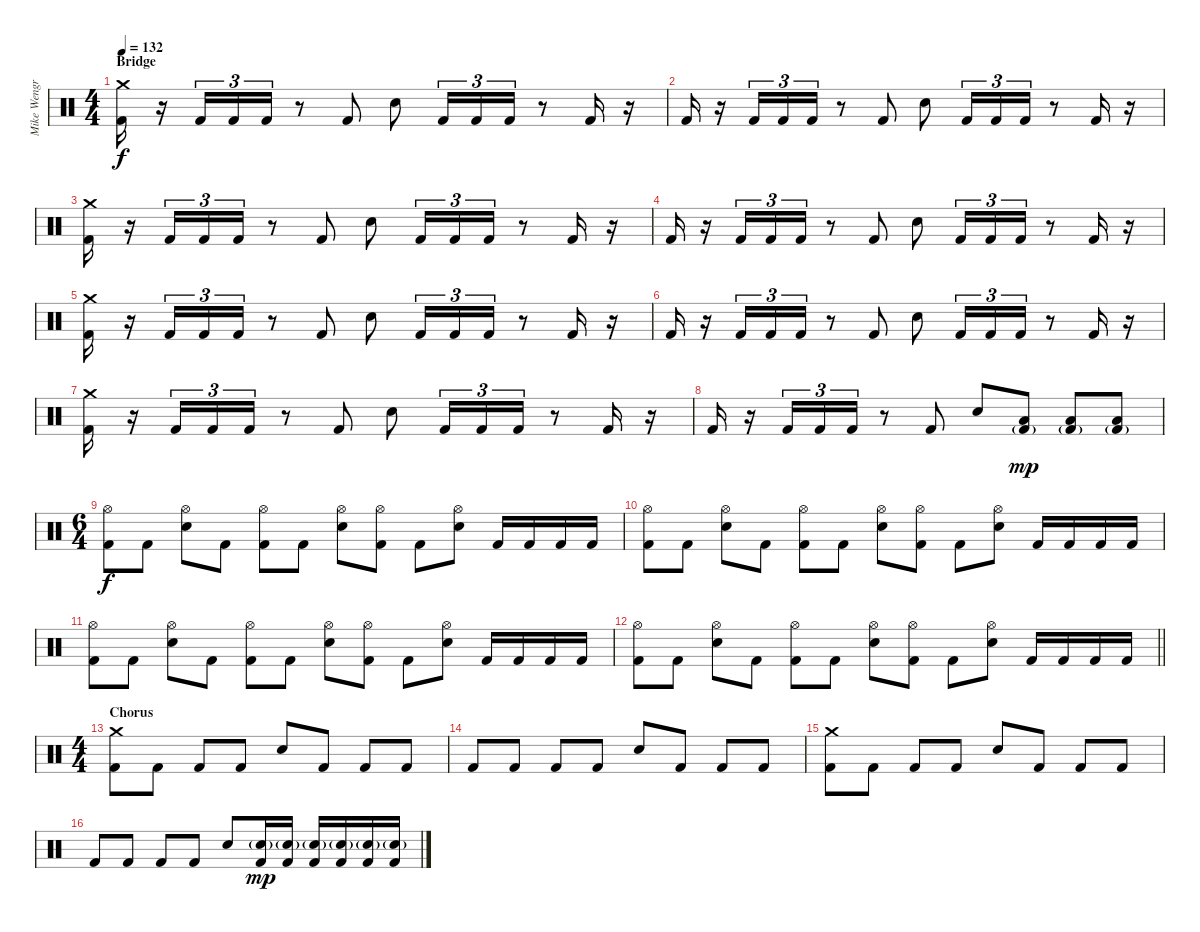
\track ("Mike Wengren" "Mike Wengr") {instrument percussion}
\staff {score}
\articulation defaults
\ts (4 4)
\section ("" "Bridge")
\tempo 132
\clef neutral
\ks c
("Crash medium (hit)" "Kick (hit) 2").16{dy f} r.16 "Kick (hit) 2".16{tu (3 2)} "Kick (hit) 2".16{tu (3 2)} "Kick (hit) 2".16{tu (3 2)} r.8 "Kick (hit) 2".8 "Electric Snare (hit)".8 "Kick (hit) 2".16{tu (3 2)} "Kick (hit) 2".16{tu (3 2)} "Kick (hit) 2".16{tu (3 2)} r.8 "Kick (hit) 2".16 r.16 |
"Kick (hit) 2".16 r.16 "Kick (hit) 2".16{tu (3 2)} "Kick (hit) 2".16{tu (3 2)} "Kick (hit) 2".16{tu (3 2)} r.8 "Kick (hit) 2".8 "Electric Snare (hit)".8 "Kick (hit) 2".16{tu (3 2)} "Kick (hit) 2".16{tu (3 2)} "Kick (hit) 2".16{tu (3 2)} r.8 "Kick (hit) 2".16 r.16 |
("Crash medium (hit)" "Kick (hit) 2").16 r.16 "Kick (hit) 2".16{tu (3 2)} "Kick (hit) 2".16{tu (3 2)} "Kick (hit) 2".16{tu (3 2)} r.8 "Kick (hit) 2".8 "Electric Snare (hit)".8 "Kick (hit) 2".16{tu (3 2)} "Kick (hit) 2".16{tu (3 2)} "Kick (hit) 2".16{tu (3 2)} r.8 "Kick (hit) 2".16 r.16 |
"Kick (hit) 2".16 r.16 "Kick (hit) 2".16{tu (3 2)} "Kick (hit) 2".16{tu (3 2)} "Kick (hit) 2".16{tu (3 2)} r.8 "Kick (hit) 2".8 "Electric Snare (hit)".8 "Kick (hit) 2".16{tu (3 2)} "Kick (hit) 2".16{tu (3 2)} "Kick (hit) 2".16{tu (3 2)} r.8 "Kick (hit) 2".16 r.16 |
("Crash medium (hit)" "Kick (hit) 2").16 r.16 "Kick (hit) 2".16{tu (3 2)} "Kick (hit) 2".16{tu (3 2)} "Kick (hit) 2".16{tu (3 2)} r.8 "Kick (hit) 2".8 "Electric Snare (hit)".8 "Kick (hit) 2".16{tu (3 2)} "Kick (hit) 2".16{tu (3 2)} "Kick (hit) 2".16{tu (3 2)} r.8 "Kick (hit) 2".16 r.16 |
"Kick (hit) 2".16 r.16 "Kick (hit) 2".16{tu (3 2)} "Kick (hit) 2".16{tu (3 2)} "Kick (hit) 2".16{tu (3 2)} r.8 "Kick (hit) 2".8 "Electric Snare (hit)".8 "Kick (hit) 2".16{tu (3 2)} "Kick (hit) 2".16{tu (3 2)} "Kick (hit) 2".16{tu (3 2)} r.8 "Kick (hit) 2".16 r.16 |
("Crash medium (hit)" "Kick (hit) 2").16 r.16 "Kick (hit) 2".16{tu (3 2)} "Kick (hit) 2".16{tu (3 2)} "Kick (hit) 2".16{tu (3 2)} r.8 "Kick (hit) 2".8 "Electric Snare (hit)".8 "Kick (hit) 2".16{tu (3 2)} "Kick (hit) 2".16{tu (3 2)} "Kick (hit) 2".16{tu (3 2)} r.8 "Kick (hit) 2".16 r.16 |
"Kick (hit) 2".16 r.16 "Kick (hit) 2".16{tu (3 2)} "Kick (hit) 2".16{tu (3 2)} "Kick (hit) 2".16{tu (3 2)} r.8 "Kick (hit) 2".8 "Electric Snare (hit)".8 ("Low Floor Tom (hit)" "Kick (hit) 2"{g}).8{dy mp} ("Low Floor Tom (hit)" "Kick (hit) 2"{g}).8 ("Low Floor Tom (hit)" "Kick (hit) 2"{g}).8 |
\ts (6 4)
("Hi-Hat (open)" "Kick (hit) 2").8{dy f} "Kick (hit) 2".8 ("Hi-Hat (open)" "Electric Snare (hit)").8 "Kick (hit) 2".8 ("Hi-Hat (open)" "Kick (hit) 2").8 "Kick (hit) 2".8 ("Hi-Hat (open)" "Electric Snare (hit)").8 ("Hi-Hat (open)" "Kick (hit) 2").8 "Kick (hit) 2".8 ("Hi-Hat (open)" "Electric Snare (hit)").8 "Kick (hit) 2".16 "Kick (hit) 2".16 "Kick (hit) 2".16 "Kick (hit) 2".16 |
("Hi-Hat (open)" "Kick (hit) 2").8 "Kick (hit) 2".8 ("Hi-Hat (open)" "Electric Snare (hit)").8 "Kick (hit) 2".8 ("Hi-Hat (open)" "Kick (hit) 2").8 "Kick (hit) 2".8 ("Hi-Hat (open)" "Electric Snare (hit)").8 ("Hi-Hat (open)" "Kick (hit) 2").8 "Kick (hit) 2".8 ("Hi-Hat (open)" "Electric Snare (hit)").8 "Kick (hit) 2".16 "Kick (hit) 2".16 "Kick (hit) 2".16 "Kick (hit) 2".16 |
("Hi-Hat (open)" "Kick (hit) 2").8 "Kick (hit) 2".8 ("Hi-Hat (open)" "Electric Snare (hit)").8 "Kick (hit) 2".8 ("Hi-Hat (open)" "Kick (hit) 2").8 "Kick (hit) 2".8 ("Hi-Hat (open)" "Electric Snare (hit)").8 ("Hi-Hat (open)" "Kick (hit) 2").8 "Kick (hit) 2".8 ("Hi-Hat (open)" "Electric Snare (hit)").8 "Kick (hit) 2".16 "Kick (hit) 2".16 "Kick (hit) 2".16 "Kick (hit) 2".16 |
\barLineRight lightlight
("Hi-Hat (open)" "Kick (hit) 2").8 "Kick (hit) 2".8 ("Hi-Hat (open)" "Electric Snare (hit)").8 "Kick (hit) 2".8 ("Hi-Hat (open)" "Kick (hit) 2").8 "Kick (hit) 2".8 ("Hi-Hat (open)" "Electric Snare (hit)").8 ("Hi-Hat (open)" "Kick (hit) 2").8 "Kick (hit) 2".8 ("Hi-Hat (open)" "Electric Snare (hit)").8 "Kick (hit) 2".16 "Kick (hit) 2".16 "Kick (hit) 2".16 "Kick (hit) 2".16 |
\ts (4 4)
\section ("" "Chorus")
("Crash medium (hit)" "Kick (hit) 2").8 "Kick (hit) 2".8 "Kick (hit) 2".8 "Kick (hit) 2".8 "Electric Snare (hit)".8 "Kick (hit) 2".8 "Kick (hit) 2".8 "Kick (hit) 2".8 |
"Kick (hit) 2".8 "Kick (hit) 2".8 "Kick (hit) 2".8 "Kick (hit) 2".8 "Electric Snare (hit)".8 "Kick (hit) 2".8 "Kick (hit) 2".8 "Kick (hit) 2".8 |
("Crash medium (hit)" "Kick (hit) 2").8 "Kick (hit) 2".8 "Kick (hit) 2".8 "Kick (hit) 2".8 "Electric Snare (hit)".8 "Kick (hit) 2".8 "Kick (hit) 2".8 "Kick (hit) 2".8 |
"Kick (hit) 2".8 "Kick (hit) 2".8 "Kick (hit) 2".8 "Kick (hit) 2".8 "Electric Snare (hit)".8 ("Electric Snare (hit)"{g} "Kick (hit) 2").16{dy mp} ("Electric Snare (hit)"{g} "Kick (hit) 2").16 ("Electric Snare (hit)"{g} "Kick (hit) 2").16 ("Electric Snare (hit)"{g} "Kick (hit) 2").16 ("Electric Snare (hit)"{g} "Kick (hit) 2").16 ("Electric Snare (hit)"{g} "Kick (hit) 2").16
